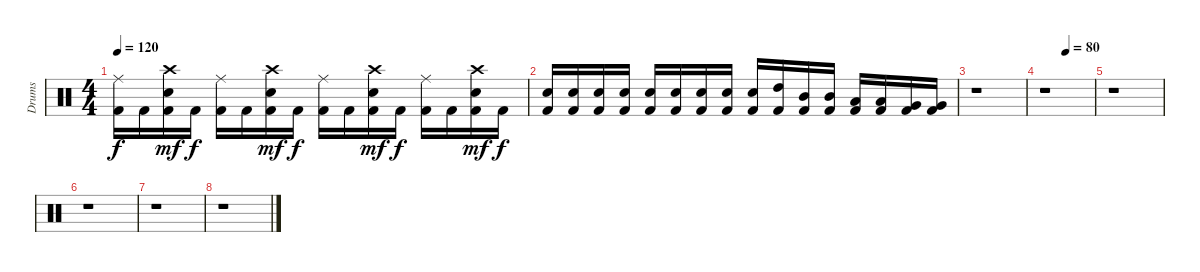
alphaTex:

\track ("Drums" "Drums") {instrument percussion}
\staff {score}
\articulation defaults
\ts (4 4)
\tempo 120
\clef neutral
\ks c
("Kick (hit) 2" "Ride (middle)").16{dy f} "Kick (hit) 2".16 ("Kick (hit) 2" "Electric Snare (hit)" "Crash high (hit)").16{dy mf} "Kick (hit) 2".16{dy f} ("Kick (hit) 2" "Ride (middle)").16 "Kick (hit) 2".16 ("Kick (hit) 2" "Electric Snare (hit)" "Crash high (hit)").16{dy mf} "Kick (hit) 2".16{dy f} ("Kick (hit) 2" "Ride (middle)").16 "Kick (hit) 2".16 ("Kick (hit) 2" "Electric Snare (hit)" "Crash high (hit)").16{dy mf} "Kick (hit) 2".16{dy f} ("Kick (hit) 2" "Ride (middle)").16 "Kick (hit) 2".16 ("Kick (hit) 2" "Electric Snare (hit)" "Crash high (hit)").16{dy mf} "Kick (hit) 2".16{dy f} |
("Kick (hit) 2" "Electric Snare (hit)").16 ("Kick (hit) 2" "Electric Snare (hit)").16 ("Kick (hit) 2" "Electric Snare (hit)").16 ("Kick (hit) 2" "Electric Snare (hit)").16 ("Kick (hit) 2" "Electric Snare (hit)").16 ("Kick (hit) 2" "Electric Snare (hit)").16 ("Kick (hit) 2" "Electric Snare (hit)").16 ("Kick (hit) 2" "Electric Snare (hit)").16 ("Kick (hit) 2" "Electric Snare (hit)").16 ("Kick (hit) 2" "High Tom (hit)").16 ("Kick (hit) 2" "Mid Tom (hit)").16 ("Kick (hit) 2" "Mid Tom (hit)").16 ("Kick (hit) 2" "Low Tom (hit)").16 ("Kick (hit) 2" "Low Tom (hit)").16 ("Kick (hit) 2" "Very Low Tom (hit)").16 ("Kick (hit) 2" "Very Low Tom (hit)").16 |
r.1 |
\tempo (80 0.4375)
r.1 |
r.1 |
r.1 |
r.1 |
r.1
